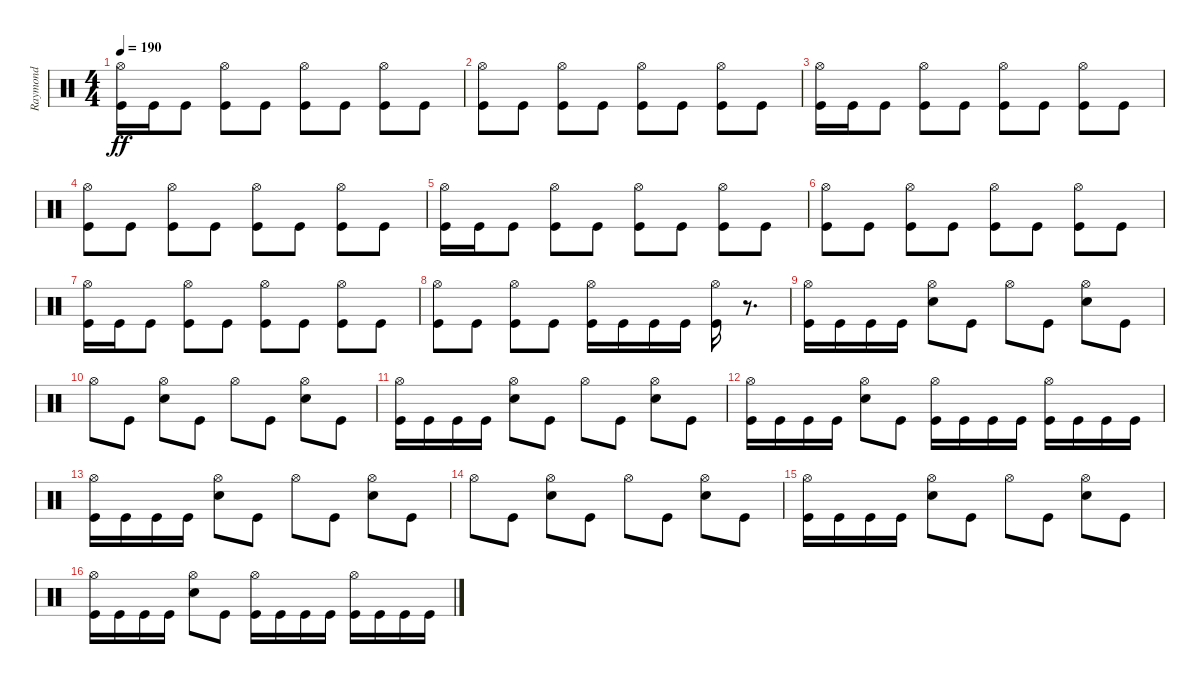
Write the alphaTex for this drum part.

\track ("Raymond" "Raymond") {instrument percussion}
\staff {score}
\articulation defaults
\ts (4 4)
\tempo 190
\clef neutral
\ks c
("Kick (hit)" "Hi-Hat (open)").16{dy ff} "Kick (hit)".16 "Kick (hit)".8 ("Kick (hit)" "Hi-Hat (open)").8 "Kick (hit)".8 ("Kick (hit)" "Hi-Hat (open)").8 "Kick (hit)".8 ("Kick (hit)" "Hi-Hat (open)").8 "Kick (hit)".8 |
("Kick (hit)" "Hi-Hat (open)").8 "Kick (hit)".8 ("Kick (hit)" "Hi-Hat (open)").8 "Kick (hit)".8 ("Kick (hit)" "Hi-Hat (open)").8 "Kick (hit)".8 ("Kick (hit)" "Hi-Hat (open)").8 "Kick (hit)".8 |
("Kick (hit)" "Hi-Hat (open)").16 "Kick (hit)".16 "Kick (hit)".8 ("Kick (hit)" "Hi-Hat (open)").8 "Kick (hit)".8 ("Kick (hit)" "Hi-Hat (open)").8 "Kick (hit)".8 ("Kick (hit)" "Hi-Hat (open)").8 "Kick (hit)".8 |
("Kick (hit)" "Hi-Hat (open)").8 "Kick (hit)".8 ("Kick (hit)" "Hi-Hat (open)").8 "Kick (hit)".8 ("Kick (hit)" "Hi-Hat (open)").8 "Kick (hit)".8 ("Kick (hit)" "Hi-Hat (open)").8 "Kick (hit)".8 |
("Kick (hit)" "Hi-Hat (open)").16 "Kick (hit)".16 "Kick (hit)".8 ("Kick (hit)" "Hi-Hat (open)").8 "Kick (hit)".8 ("Kick (hit)" "Hi-Hat (open)").8 "Kick (hit)".8 ("Kick (hit)" "Hi-Hat (open)").8 "Kick (hit)".8 |
("Kick (hit)" "Hi-Hat (open)").8 "Kick (hit)".8 ("Kick (hit)" "Hi-Hat (open)").8 "Kick (hit)".8 ("Kick (hit)" "Hi-Hat (open)").8 "Kick (hit)".8 ("Kick (hit)" "Hi-Hat (open)").8 "Kick (hit)".8 |
("Kick (hit)" "Hi-Hat (open)").16 "Kick (hit)".16 "Kick (hit)".8 ("Kick (hit)" "Hi-Hat (open)").8 "Kick (hit)".8 ("Kick (hit)" "Hi-Hat (open)").8 "Kick (hit)".8 ("Kick (hit)" "Hi-Hat (open)").8 "Kick (hit)".8 |
("Kick (hit)" "Hi-Hat (open)").8 "Kick (hit)".8 ("Kick (hit)" "Hi-Hat (open)").8 "Kick (hit)".8 ("Kick (hit)" "Hi-Hat (open)").16 "Kick (hit)".16 "Kick (hit)".16 "Kick (hit)".16 ("Kick (hit)" "Hi-Hat (open)").16 r.8{d} |
("Kick (hit)" "Hi-Hat (open)").16 "Kick (hit)".16 "Kick (hit)".16 "Kick (hit)".16 ("Snare (hit) 2" "Hi-Hat (open)").8 "Kick (hit)".8 "Hi-Hat (open)".8 "Kick (hit)".8 ("Snare (hit) 2" "Hi-Hat (open)").8 "Kick (hit)".8 |
"Hi-Hat (open)".8 "Kick (hit)".8 ("Snare (hit) 2" "Hi-Hat (open)").8 "Kick (hit)".8 "Hi-Hat (open)".8 "Kick (hit)".8 ("Snare (hit) 2" "Hi-Hat (open)").8 "Kick (hit)".8 |
("Kick (hit)" "Hi-Hat (open)").16 "Kick (hit)".16 "Kick (hit)".16 "Kick (hit)".16 ("Snare (hit) 2" "Hi-Hat (open)").8 "Kick (hit)".8 "Hi-Hat (open)".8 "Kick (hit)".8 ("Snare (hit) 2" "Hi-Hat (open)").8 "Kick (hit)".8 |
("Kick (hit)" "Hi-Hat (open)").16 "Kick (hit)".16 "Kick (hit)".16 "Kick (hit)".16 ("Snare (hit) 2" "Hi-Hat (open)").8 "Kick (hit)".8 ("Kick (hit)" "Hi-Hat (open)").16 "Kick (hit)".16 "Kick (hit)".16 "Kick (hit)".16 ("Kick (hit)" "Hi-Hat (open)").16 "Kick (hit)".16 "Kick (hit)".16 "Kick (hit)".16 |
("Kick (hit)" "Hi-Hat (open)").16 "Kick (hit)".16 "Kick (hit)".16 "Kick (hit)".16 ("Snare (hit) 2" "Hi-Hat (open)").8 "Kick (hit)".8 "Hi-Hat (open)".8 "Kick (hit)".8 ("Snare (hit) 2" "Hi-Hat (open)").8 "Kick (hit)".8 |
"Hi-Hat (open)".8 "Kick (hit)".8 ("Snare (hit) 2" "Hi-Hat (open)").8 "Kick (hit)".8 "Hi-Hat (open)".8 "Kick (hit)".8 ("Snare (hit) 2" "Hi-Hat (open)").8 "Kick (hit)".8 |
("Kick (hit)" "Hi-Hat (open)").16 "Kick (hit)".16 "Kick (hit)".16 "Kick (hit)".16 ("Snare (hit) 2" "Hi-Hat (open)").8 "Kick (hit)".8 "Hi-Hat (open)".8 "Kick (hit)".8 ("Snare (hit) 2" "Hi-Hat (open)").8 "Kick (hit)".8 |
("Kick (hit)" "Hi-Hat (open)").16 "Kick (hit)".16 "Kick (hit)".16 "Kick (hit)".16 ("Snare (hit) 2" "Hi-Hat (open)").8 "Kick (hit)".8 ("Kick (hit)" "Hi-Hat (open)").16 "Kick (hit)".16 "Kick (hit)".16 "Kick (hit)".16 ("Kick (hit)" "Hi-Hat (open)").16 "Kick (hit)".16 "Kick (hit)".16 "Kick (hit)".16
